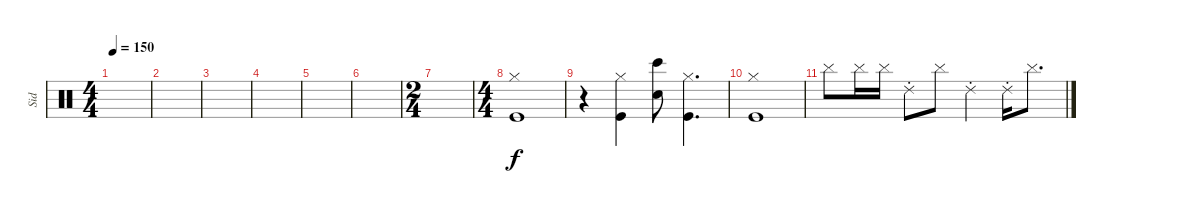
\track ("Sid" "Sid") {instrument percussion}
\staff {score}
\articulation defaults
\ts (4 4)
\tempo 150
\clef neutral
\ks c
|
|
|
|
|
|
\ts (2 4)
|
\ts (4 4)
("Hi-Hat (closed)" "Kick (hit)").1 |
r.4 ("Hi-Hat (closed)" "Kick (hit)").4 ("Snare (hit) 2" "Bongo High (hit)").8 ("Hi-Hat (closed)" "Kick (hit)").4{d} |
("Hi-Hat (closed)" "Kick (hit)").1 |
"Cymbal (hit)".8 "Cymbal (hit)".16 "Cymbal (hit)".16 "Ride (choke) 2".8 "Cymbal (hit)".8 "Ride (choke) 2".4 "Ride (choke) 2".16 "Cymbal (hit)".8{d}
